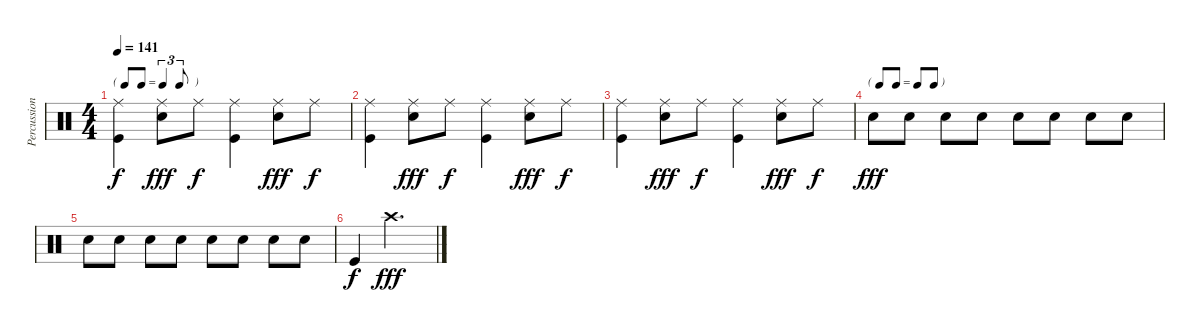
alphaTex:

\track ("Percussions 2" "Percussion") {mute instrument percussion}
\staff {score}
\articulation defaults
\ts (4 4)
\tf triplet8th
\tempo 141
\clef neutral
\ks c
("Kick (hit)" "Ride (middle)").4{dy f} ("Snare (hit) 2" "Ride (middle)").8{dy fff} "Ride (middle)".8{dy f} ("Kick (hit)" "Ride (middle)").4 ("Snare (hit) 2" "Ride (middle)").8{dy fff} "Ride (middle)".8{dy f} |
("Kick (hit)" "Ride (middle)").4 ("Snare (hit) 2" "Ride (middle)").8{dy fff} "Ride (middle)".8{dy f} ("Kick (hit)" "Ride (middle)").4 ("Snare (hit) 2" "Ride (middle)").8{dy fff} "Ride (middle)".8{dy f} |
("Kick (hit)" "Ride (middle)").4 ("Snare (hit) 2" "Ride (middle)").8{dy fff} "Ride (middle)".8{dy f} ("Kick (hit)" "Ride (middle)").4 ("Snare (hit) 2" "Ride (middle)").8{dy fff} "Ride (middle)".8{dy f} |
\tf none "Snare (hit) 2".8{dy fff} "Snare (hit) 2".8 "Snare (hit) 2".8 "Snare (hit) 2".8 "Snare (hit) 2".8 "Snare (hit) 2".8 "Snare (hit) 2".8 "Snare (hit) 2".8
|
"Snare (hit) 2".8 "Snare (hit) 2".8 "Snare (hit) 2".8 "Snare (hit) 2".8 "Snare (hit) 2".8 "Snare (hit) 2".8 "Snare (hit) 2".8 "Snare (hit) 2".8 |
"Kick (hit)".4{dy f} "Crash high (hit)".2{d dy fff}
